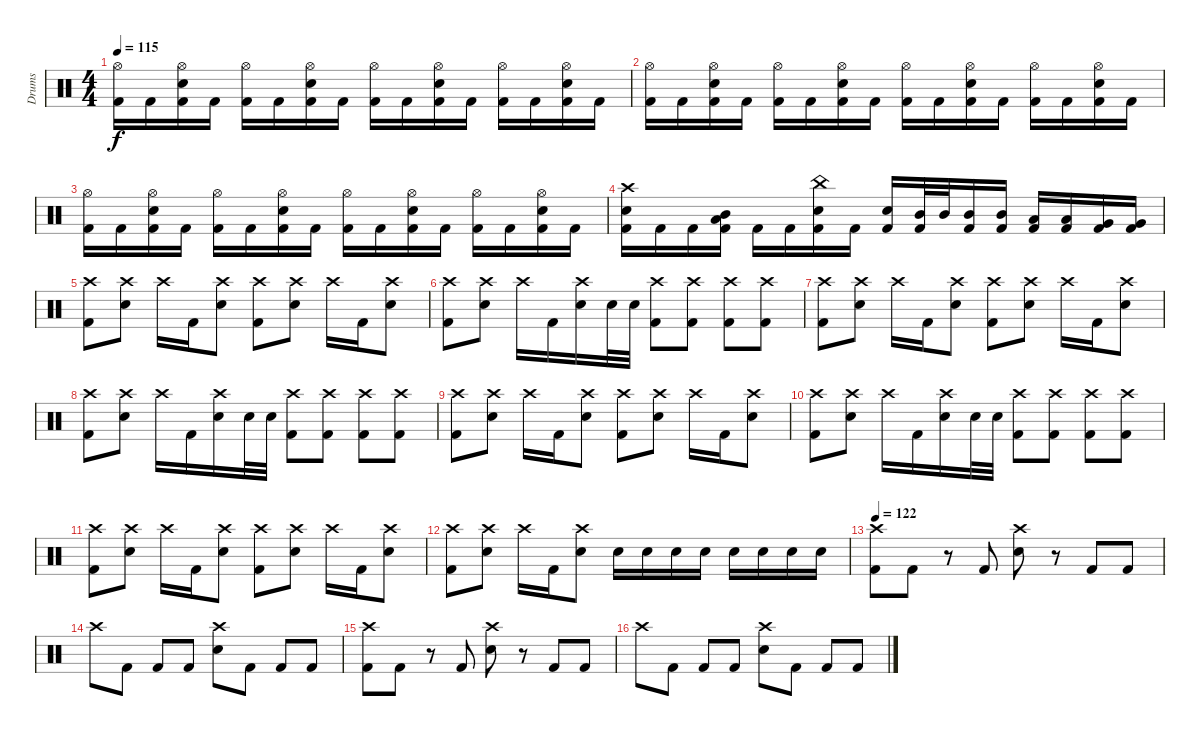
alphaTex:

\track ("Drums" "Drums") {instrument percussion}
\staff {score}
\articulation defaults
\ts (4 4)
\tempo 115
\clef neutral
\ks c
("Hi-Hat (open)" "Kick (hit) 2").16{dy f} "Kick (hit) 2".16 ("Hi-Hat (open)" "Electric Snare (hit)" "Kick (hit) 2").16 "Kick (hit) 2".16 ("Hi-Hat (open)" "Kick (hit) 2").16 "Kick (hit) 2".16 ("Hi-Hat (open)" "Electric Snare (hit)" "Kick (hit) 2").16 "Kick (hit) 2".16 ("Hi-Hat (open)" "Kick (hit) 2").16 "Kick (hit) 2".16 ("Hi-Hat (open)" "Electric Snare (hit)" "Kick (hit) 2").16 "Kick (hit) 2".16 ("Hi-Hat (open)" "Kick (hit) 2").16 "Kick (hit) 2".16 ("Hi-Hat (open)" "Electric Snare (hit)" "Kick (hit) 2").16 "Kick (hit) 2".16 |
("Hi-Hat (open)" "Kick (hit) 2").16 "Kick (hit) 2".16 ("Hi-Hat (open)" "Electric Snare (hit)" "Kick (hit) 2").16 "Kick (hit) 2".16 ("Hi-Hat (open)" "Kick (hit) 2").16 "Kick (hit) 2".16 ("Hi-Hat (open)" "Electric Snare (hit)" "Kick (hit) 2").16 "Kick (hit) 2".16 ("Hi-Hat (open)" "Kick (hit) 2").16 "Kick (hit) 2".16 ("Hi-Hat (open)" "Electric Snare (hit)" "Kick (hit) 2").16 "Kick (hit) 2".16 ("Hi-Hat (open)" "Kick (hit) 2").16 "Kick (hit) 2".16 ("Hi-Hat (open)" "Electric Snare (hit)" "Kick (hit) 2").16 "Kick (hit) 2".16 |
("Hi-Hat (open)" "Kick (hit) 2").16 "Kick (hit) 2".16 ("Hi-Hat (open)" "Electric Snare (hit)" "Kick (hit) 2").16 "Kick (hit) 2".16 ("Hi-Hat (open)" "Kick (hit) 2").16 "Kick (hit) 2".16 ("Hi-Hat (open)" "Electric Snare (hit)" "Kick (hit) 2").16 "Kick (hit) 2".16 ("Hi-Hat (open)" "Kick (hit) 2").16 "Kick (hit) 2".16 ("Hi-Hat (open)" "Electric Snare (hit)" "Kick (hit) 2").16 "Kick (hit) 2".16 ("Hi-Hat (open)" "Kick (hit) 2").16 "Kick (hit) 2".16 ("Hi-Hat (open)" "Electric Snare (hit)" "Kick (hit) 2").16 "Kick (hit) 2".16 |
("Crash high (hit)" "Electric Snare (hit)" "Kick (hit) 2").16 "Kick (hit) 2".16 "Kick (hit) 2".16 ("Mid Tom (hit)" "Low Tom (hit)" "Kick (hit) 2").16 "Kick (hit) 2".16 "Kick (hit) 2".16 ("China (hit)" "Electric Snare (hit)" "Kick (hit) 2").16 "Kick (hit) 2".16 ("Electric Snare (hit)" "Kick (hit) 2").16 ("Mid Tom (hit)" "Kick (hit) 2").32 "Mid Tom (hit)".32 ("Mid Tom (hit)" "Kick (hit) 2").16 ("Mid Tom (hit)" "Kick (hit) 2").16 ("Low Tom (hit)" "Kick (hit) 2").16 ("Low Tom (hit)" "Kick (hit) 2").16 ("Very Low Tom (hit)" "Kick (hit) 2").16 ("Very Low Tom (hit)" "Kick (hit) 2").16 |
("Crash high (hit)" "Kick (hit) 2").8 ("Crash high (hit)" "Electric Snare (hit)").8 "Crash high (hit)".16 "Kick (hit) 2".16 ("Crash high (hit)" "Electric Snare (hit)").8 ("Crash high (hit)" "Kick (hit) 2").8 ("Crash high (hit)" "Electric Snare (hit)").8 "Crash high (hit)".16 "Kick (hit) 2".16 ("Crash high (hit)" "Electric Snare (hit)").8 |
("Crash high (hit)" "Kick (hit) 2").8 ("Crash high (hit)" "Electric Snare (hit)").8 "Crash high (hit)".16 "Kick (hit) 2".16 ("Crash high (hit)" "Electric Snare (hit)").16 "Electric Snare (hit)".32 "Electric Snare (hit)".32 ("Crash high (hit)" "Kick (hit) 2").8 ("Crash high (hit)" "Kick (hit) 2").8 ("Crash high (hit)" "Kick (hit) 2").8 ("Crash high (hit)" "Kick (hit) 2").8 |
("Crash high (hit)" "Kick (hit) 2").8 ("Crash high (hit)" "Electric Snare (hit)").8 "Crash high (hit)".16 "Kick (hit) 2".16 ("Crash high (hit)" "Electric Snare (hit)").8 ("Crash high (hit)" "Kick (hit) 2").8 ("Crash high (hit)" "Electric Snare (hit)").8 "Crash high (hit)".16 "Kick (hit) 2".16 ("Crash high (hit)" "Electric Snare (hit)").8 |
("Crash high (hit)" "Kick (hit) 2").8 ("Crash high (hit)" "Electric Snare (hit)").8 "Crash high (hit)".16 "Kick (hit) 2".16 ("Crash high (hit)" "Electric Snare (hit)").16 "Electric Snare (hit)".32 "Electric Snare (hit)".32 ("Crash high (hit)" "Kick (hit) 2").8 ("Crash high (hit)" "Kick (hit) 2").8 ("Crash high (hit)" "Kick (hit) 2").8 ("Crash high (hit)" "Kick (hit) 2").8 |
("Crash high (hit)" "Kick (hit) 2").8 ("Crash high (hit)" "Electric Snare (hit)").8 "Crash high (hit)".16 "Kick (hit) 2".16 ("Crash high (hit)" "Electric Snare (hit)").8 ("Crash high (hit)" "Kick (hit) 2").8 ("Crash high (hit)" "Electric Snare (hit)").8 "Crash high (hit)".16 "Kick (hit) 2".16 ("Crash high (hit)" "Electric Snare (hit)").8 |
("Crash high (hit)" "Kick (hit) 2").8 ("Crash high (hit)" "Electric Snare (hit)").8 "Crash high (hit)".16 "Kick (hit) 2".16 ("Crash high (hit)" "Electric Snare (hit)").16 "Electric Snare (hit)".32 "Electric Snare (hit)".32 ("Crash high (hit)" "Kick (hit) 2").8 ("Crash high (hit)" "Kick (hit) 2").8 ("Crash high (hit)" "Kick (hit) 2").8 ("Crash high (hit)" "Kick (hit) 2").8 |
("Crash high (hit)" "Kick (hit) 2").8 ("Crash high (hit)" "Electric Snare (hit)").8 "Crash high (hit)".16 "Kick (hit) 2".16 ("Crash high (hit)" "Electric Snare (hit)").8 ("Crash high (hit)" "Kick (hit) 2").8 ("Crash high (hit)" "Electric Snare (hit)").8 "Crash high (hit)".16 "Kick (hit) 2".16 ("Crash high (hit)" "Electric Snare (hit)").8 |
("Crash high (hit)" "Kick (hit) 2").8 ("Crash high (hit)" "Electric Snare (hit)").8 "Crash high (hit)".16 "Kick (hit) 2".16 ("Crash high (hit)" "Electric Snare (hit)").8 "Electric Snare (hit)".16 "Electric Snare (hit)".16 "Electric Snare (hit)".16 "Electric Snare (hit)".16 "Electric Snare (hit)".16 "Electric Snare (hit)".16 "Electric Snare (hit)".16 "Electric Snare (hit)".16 |
\tempo 122
("Crash high (hit)" "Kick (hit) 2").8 "Kick (hit) 2".8 r.8 "Kick (hit) 2".8 ("Crash high (hit)" "Electric Snare (hit)").8 r.8 "Kick (hit) 2".8 "Kick (hit) 2".8 |
"Crash high (hit)".8 "Kick (hit) 2".8 "Kick (hit) 2".8 "Kick (hit) 2".8 ("Crash high (hit)" "Electric Snare (hit)").8 "Kick (hit) 2".8 "Kick (hit) 2".8 "Kick (hit) 2".8 |
("Crash high (hit)" "Kick (hit) 2").8 "Kick (hit) 2".8 r.8 "Kick (hit) 2".8 ("Crash high (hit)" "Electric Snare (hit)").8 r.8 "Kick (hit) 2".8 "Kick (hit) 2".8 |
"Crash high (hit)".8 "Kick (hit) 2".8 "Kick (hit) 2".8 "Kick (hit) 2".8 ("Crash high (hit)" "Electric Snare (hit)").8 "Kick (hit) 2".8 "Kick (hit) 2".8 "Kick (hit) 2".8
